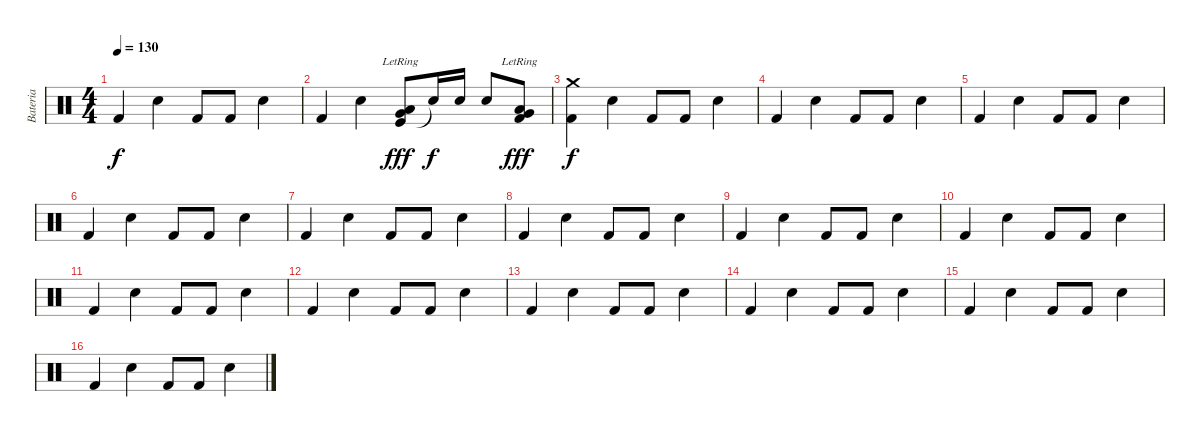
\track ("Bateria" "Bateria") {instrument percussion}
\staff {score}
\articulation defaults
\ts (4 4)
\tempo 130
\clef neutral
\ks c "Kick (hit) 2".4{dy f} "Electric Snare (hit)".4 "Kick (hit) 2".8 "Kick (hit) 2".8 "Electric Snare (hit)".4
|
"Kick (hit) 2".4 "Electric Snare (hit)".4 ("Kick (hit)" "Very Low Tom (hit)"{lr} "Low Tom (hit)"{lr}).8{dy fff} "Snare (hit)"{t}.16{dy f} "Electric Snare (hit)".16 "Electric Snare (hit)".8 ("Very Low Tom (hit)"{lr} "Low Floor Tom (hit)"{lr} "Kick (hit) 2").8{dy fff} |
("Crash medium (hit)" "Kick (hit) 2").4{dy f} "Electric Snare (hit)".4 "Kick (hit) 2".8 "Kick (hit) 2".8 "Electric Snare (hit)".4 |
"Kick (hit) 2".4 "Electric Snare (hit)".4 "Kick (hit) 2".8 "Kick (hit) 2".8 "Electric Snare (hit)".4 |
"Kick (hit) 2".4 "Electric Snare (hit)".4 "Kick (hit) 2".8 "Kick (hit) 2".8 "Electric Snare (hit)".4 |
"Kick (hit) 2".4 "Electric Snare (hit)".4 "Kick (hit) 2".8 "Kick (hit) 2".8 "Electric Snare (hit)".4 |
"Kick (hit) 2".4 "Electric Snare (hit)".4 "Kick (hit) 2".8 "Kick (hit) 2".8 "Electric Snare (hit)".4 |
"Kick (hit) 2".4 "Electric Snare (hit)".4 "Kick (hit) 2".8 "Kick (hit) 2".8 "Electric Snare (hit)".4 |
"Kick (hit) 2".4 "Electric Snare (hit)".4 "Kick (hit) 2".8 "Kick (hit) 2".8 "Electric Snare (hit)".4 |
"Kick (hit) 2".4 "Electric Snare (hit)".4 "Kick (hit) 2".8 "Kick (hit) 2".8 "Electric Snare (hit)".4 |
"Kick (hit) 2".4 "Electric Snare (hit)".4 "Kick (hit) 2".8 "Kick (hit) 2".8 "Electric Snare (hit)".4 |
"Kick (hit) 2".4 "Electric Snare (hit)".4 "Kick (hit) 2".8 "Kick (hit) 2".8 "Electric Snare (hit)".4 |
"Kick (hit) 2".4 "Electric Snare (hit)".4 "Kick (hit) 2".8 "Kick (hit) 2".8 "Electric Snare (hit)".4 |
"Kick (hit) 2".4 "Electric Snare (hit)".4 "Kick (hit) 2".8 "Kick (hit) 2".8 "Electric Snare (hit)".4 |
"Kick (hit) 2".4 "Electric Snare (hit)".4 "Kick (hit) 2".8 "Kick (hit) 2".8 "Electric Snare (hit)".4 |
"Kick (hit) 2".4 "Electric Snare (hit)".4 "Kick (hit) 2".8 "Kick (hit) 2".8 "Electric Snare (hit)".4
